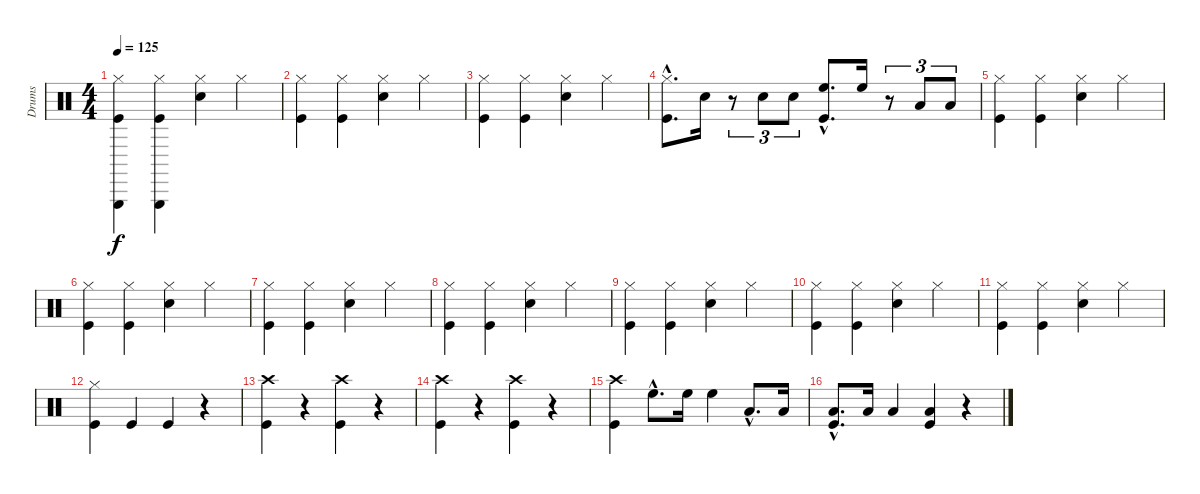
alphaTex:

\track ("Drums" "Drums") {instrument percussion}
\staff {score}
\articulation defaults
\ts (4 4)
\tempo 125
\clef neutral
\ks c
("Hi-Hat (closed)" "Triangle (hit)" "Kick (hit)").4{dy f volume 16} ("Hi-Hat (closed)" "Triangle (hit)" "Kick (hit)").4 ("Hi-Hat (closed)" "Snare (hit) 2").4{volume 13} "Hi-Hat (closed)".4 |
("Hi-Hat (closed)" "Kick (hit)").4 ("Hi-Hat (closed)" "Kick (hit)").4 ("Hi-Hat (closed)" "Snare (hit) 2").4 "Hi-Hat (closed)".4 |
("Hi-Hat (closed)" "Kick (hit)").4 ("Hi-Hat (closed)" "Kick (hit)").4 ("Hi-Hat (closed)" "Snare (hit) 2").4 "Hi-Hat (closed)".4 |
("Hi-Hat (closed)"{hac} "Kick (hit)"{hac}).8{d} "Snare (hit) 2".16 r.8{tu (3 2)} "Snare (hit) 2".8{tu (3 2)} "Snare (hit) 2".8{tu (3 2)} ("High Floor Tom (hit)"{hac} "Kick (hit)"{hac}).8{d} "High Floor Tom (hit)".16 r.8{tu (3 2)} "Low Floor Tom (hit)".8{tu (3 2)} "Low Floor Tom (hit)".8{tu (3 2)} |
("Hi-Hat (closed)" "Kick (hit)").4 ("Hi-Hat (closed)" "Kick (hit)").4 ("Hi-Hat (closed)" "Snare (hit) 2").4 "Hi-Hat (closed)".4 |
("Hi-Hat (closed)" "Kick (hit)").4 ("Hi-Hat (closed)" "Kick (hit)").4 ("Hi-Hat (closed)" "Snare (hit) 2").4 "Hi-Hat (closed)".4 |
("Hi-Hat (closed)" "Kick (hit)").4 ("Hi-Hat (closed)" "Kick (hit)").4 ("Hi-Hat (closed)" "Snare (hit) 2").4 "Hi-Hat (closed)".4 |
("Hi-Hat (closed)" "Kick (hit)").4 ("Hi-Hat (closed)" "Kick (hit)").4 ("Hi-Hat (closed)" "Snare (hit) 2").4 "Hi-Hat (closed)".4 |
("Hi-Hat (closed)" "Kick (hit)").4 ("Hi-Hat (closed)" "Kick (hit)").4 ("Hi-Hat (closed)" "Snare (hit) 2").4 "Hi-Hat (closed)".4 |
("Hi-Hat (closed)" "Kick (hit)").4 ("Hi-Hat (closed)" "Kick (hit)").4 ("Hi-Hat (closed)" "Snare (hit) 2").4 "Hi-Hat (closed)".4 |
("Hi-Hat (closed)" "Kick (hit)").4 ("Hi-Hat (closed)" "Kick (hit)").4 ("Hi-Hat (closed)" "Snare (hit) 2").4 "Hi-Hat (closed)".4 |
("Hi-Hat (closed)" "Kick (hit)").4 "Kick (hit)".4 "Kick (hit)".4 r.4 |
("Crash high (hit)" "Kick (hit)").4 r.4 ("Crash high (hit)" "Kick (hit)").4 r.4 |
("Crash high (hit)" "Kick (hit)").4 r.4 ("Crash high (hit)" "Kick (hit)").4 r.4 |
("Crash high (hit)" "Kick (hit)").4 "High Floor Tom (hit)"{hac}.8{d} "High Floor Tom (hit)".16 "High Floor Tom (hit)".4 "Low Floor Tom (hit)"{hac}.8{d} "Low Floor Tom (hit)".16 |
("Low Floor Tom (hit)"{hac} "Kick (hit)"{hac}).8{d} "Low Floor Tom (hit)".16 "Low Floor Tom (hit)".4 ("Low Floor Tom (hit)" "Kick (hit)").4 r.4
